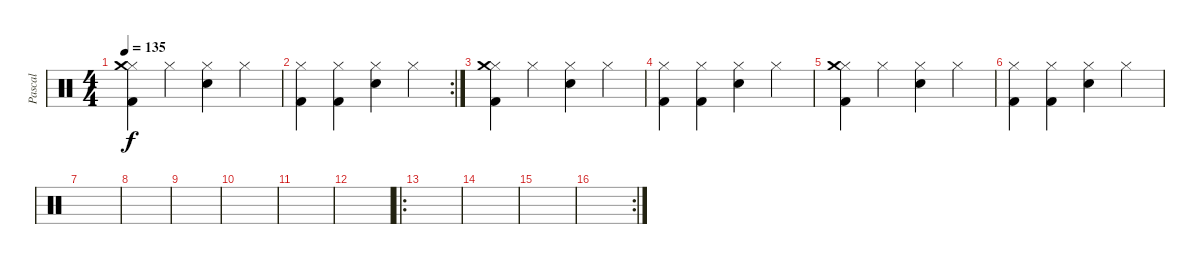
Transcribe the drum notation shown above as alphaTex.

\track ("Pascal" "Pascal") {instrument percussion}
\staff {score}
\articulation defaults
\ts (4 4)
\tempo 135
\clef neutral
\ks c
("Kick (hit) 2" "Hi-Hat (closed)" "Crash medium (hit)").4{dy f} "Hi-Hat (closed)".4 ("Snare (hit) 2" "Hi-Hat (closed)").4 "Hi-Hat (closed)".4 |
\rc 2
("Kick (hit) 2" "Hi-Hat (closed)").4 ("Kick (hit) 2" "Hi-Hat (closed)").4 ("Snare (hit) 2" "Hi-Hat (closed)").4 "Hi-Hat (closed)".4 |
("Kick (hit) 2" "Hi-Hat (closed)" "Crash medium (hit)").4 "Hi-Hat (closed)".4 ("Snare (hit) 2" "Hi-Hat (closed)").4 "Hi-Hat (closed)".4 |
("Kick (hit) 2" "Hi-Hat (closed)").4 ("Kick (hit) 2" "Hi-Hat (closed)").4 ("Snare (hit) 2" "Hi-Hat (closed)").4 "Hi-Hat (closed)".4 |
("Kick (hit) 2" "Hi-Hat (closed)" "Crash medium (hit)").4 "Hi-Hat (closed)".4 ("Snare (hit) 2" "Hi-Hat (closed)").4 "Hi-Hat (closed)".4 |
("Kick (hit) 2" "Hi-Hat (closed)").4 ("Kick (hit) 2" "Hi-Hat (closed)").4 ("Snare (hit) 2" "Hi-Hat (closed)").4 "Hi-Hat (closed)".4 |
|
|
|
|
|
|
\ro
|
|
|
\rc 2
